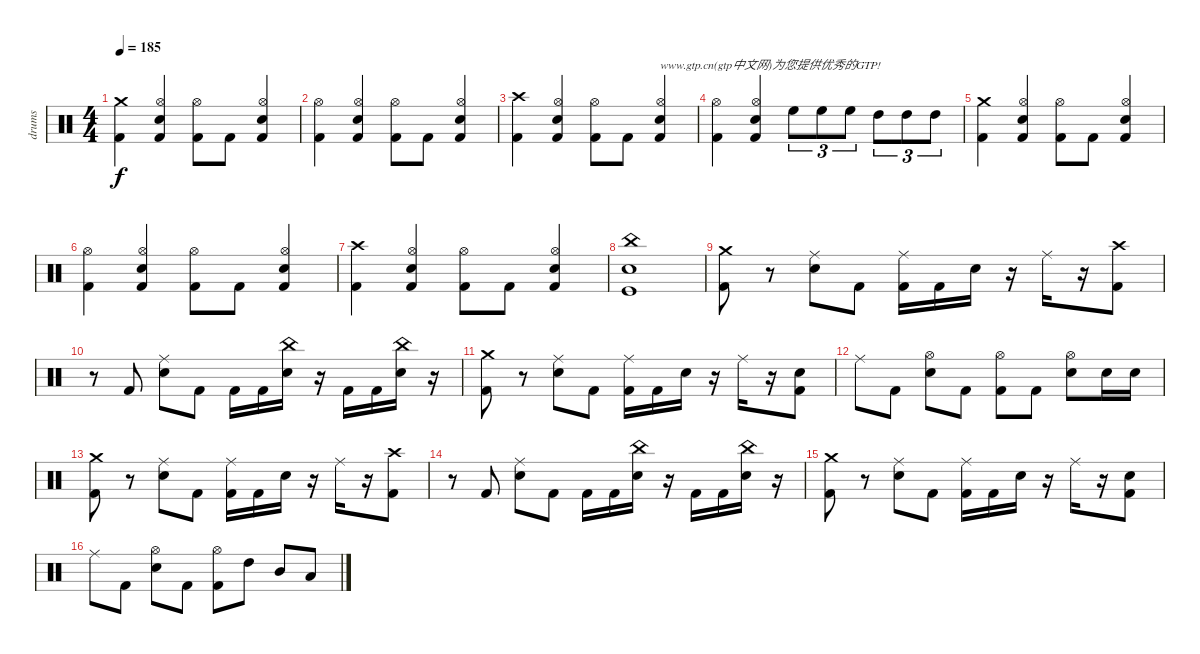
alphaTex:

\track ("drums" "drums") {instrument percussion}
\staff {score}
\articulation defaults
\ts (4 4)
\tempo 185
\clef neutral
\ks c
("Crash medium (hit)" "Kick (hit) 2").4{dy f} ("Hi-Hat (open)" "Snare (hit) 2" "Kick (hit) 2").4 ("Hi-Hat (open)" "Kick (hit) 2").8 "Kick (hit) 2".8 ("Hi-Hat (open)" "Snare (hit) 2" "Kick (hit) 2").4 |
("Hi-Hat (open)" "Kick (hit) 2").4 ("Hi-Hat (open)" "Snare (hit) 2" "Kick (hit) 2").4 ("Hi-Hat (open)" "Kick (hit) 2").8 "Kick (hit) 2".8 ("Hi-Hat (open)" "Snare (hit) 2" "Kick (hit) 2").4 |
("Crash high (hit)" "Kick (hit) 2").4 ("Hi-Hat (open)" "Snare (hit) 2" "Kick (hit) 2").4 ("Hi-Hat (open)" "Kick (hit) 2").8 "Kick (hit) 2".8 ("Hi-Hat (open)" "Snare (hit) 2" "Kick (hit) 2").4{txt "www.gtp.cn(gtp中文网)为您提供优秀的GTP!"} |
("Hi-Hat (open)" "Kick (hit) 2").4 ("Hi-Hat (open)" "Snare (hit) 2" "Kick (hit) 2").4 "High Floor Tom (hit)".8{tu (3 2)} "High Floor Tom (hit)".8{tu (3 2)} "High Floor Tom (hit)".8{tu (3 2)} "High Tom (hit)".8{tu (3 2)} "High Tom (hit)".8{tu (3 2)} "High Tom (hit)".8{tu (3 2)} |
("Crash medium (hit)" "Kick (hit) 2").4 ("Hi-Hat (open)" "Snare (hit) 2" "Kick (hit) 2").4 ("Hi-Hat (open)" "Kick (hit) 2").8 "Kick (hit) 2".8 ("Hi-Hat (open)" "Snare (hit) 2" "Kick (hit) 2").4 |
("Hi-Hat (open)" "Kick (hit) 2").4 ("Hi-Hat (open)" "Snare (hit) 2" "Kick (hit) 2").4 ("Hi-Hat (open)" "Kick (hit) 2").8 "Kick (hit) 2".8 ("Hi-Hat (open)" "Snare (hit) 2" "Kick (hit) 2").4 |
("Crash high (hit)" "Kick (hit) 2").4 ("Hi-Hat (open)" "Snare (hit) 2" "Kick (hit) 2").4 ("Hi-Hat (open)" "Kick (hit) 2").8 "Kick (hit) 2".8 ("Hi-Hat (open)" "Snare (hit) 2" "Kick (hit) 2").4 |
("China (hit)" "Snare (hit) 2" "Kick (hit)").1 |
("Crash medium (hit)" "Kick (hit) 2").8 r.8 ("Ride (middle)" "Snare (hit) 2").8 "Kick (hit) 2".8 ("Ride (middle)" "Kick (hit) 2").16 "Kick (hit) 2".16 "Snare (hit) 2".16 r.16 "Ride (middle)".16 r.16 ("Crash high (hit)" "Kick (hit) 2").8 |
r.8 "Kick (hit) 2".8 ("Ride (middle)" "Snare (hit) 2").8 "Kick (hit) 2".8 "Kick (hit) 2".16 "Kick (hit) 2".16 ("China (hit)" "Snare (hit) 2").16 r.16 "Kick (hit) 2".16 "Kick (hit) 2".16 ("China (hit)" "Snare (hit) 2").16 r.16 |
("Crash medium (hit)" "Kick (hit) 2").8 r.8 ("Ride (middle)" "Snare (hit) 2").8 "Kick (hit) 2".8 ("Ride (middle)" "Kick (hit) 2").16 "Kick (hit) 2".16 "Snare (hit) 2".16 r.16 "Ride (middle)".16 r.16 ("Snare (hit) 2" "Kick (hit) 2").8 |
"Ride (middle)".8 "Kick (hit) 2".8 ("Hi-Hat (open)" "Snare (hit) 2").8 "Kick (hit) 2".8 ("Hi-Hat (open)" "Kick (hit) 2").8 "Kick (hit) 2".8 ("Hi-Hat (open)" "Snare (hit) 2").8 "Snare (hit) 2".16 "Snare (hit) 2".16 |
("Crash medium (hit)" "Kick (hit) 2").8 r.8 ("Ride (middle)" "Snare (hit) 2").8 "Kick (hit) 2".8 ("Ride (middle)" "Kick (hit) 2").16 "Kick (hit) 2".16 "Snare (hit) 2".16 r.16 "Ride (middle)".16 r.16 ("Crash high (hit)" "Kick (hit) 2").8 |
r.8 "Kick (hit) 2".8 ("Ride (middle)" "Snare (hit) 2").8 "Kick (hit) 2".8 "Kick (hit) 2".16 "Kick (hit) 2".16 ("China (hit)" "Snare (hit) 2").16 r.16 "Kick (hit) 2".16 "Kick (hit) 2".16 ("China (hit)" "Snare (hit) 2").16 r.16 |
("Crash medium (hit)" "Kick (hit) 2").8 r.8 ("Ride (middle)" "Snare (hit) 2").8 "Kick (hit) 2".8 ("Ride (middle)" "Kick (hit) 2").16 "Kick (hit) 2".16 "Snare (hit) 2".16 r.16 "Ride (middle)".16 r.16 ("Snare (hit) 2" "Kick (hit) 2").8 |
"Ride (middle)".8 "Kick (hit) 2".8 ("Hi-Hat (open)" "Snare (hit) 2").8 "Kick (hit) 2".8 ("Hi-Hat (open)" "Kick (hit) 2").8 "High Tom (hit)".8 "Mid Tom (hit)".8 "Low Tom (hit)".8
